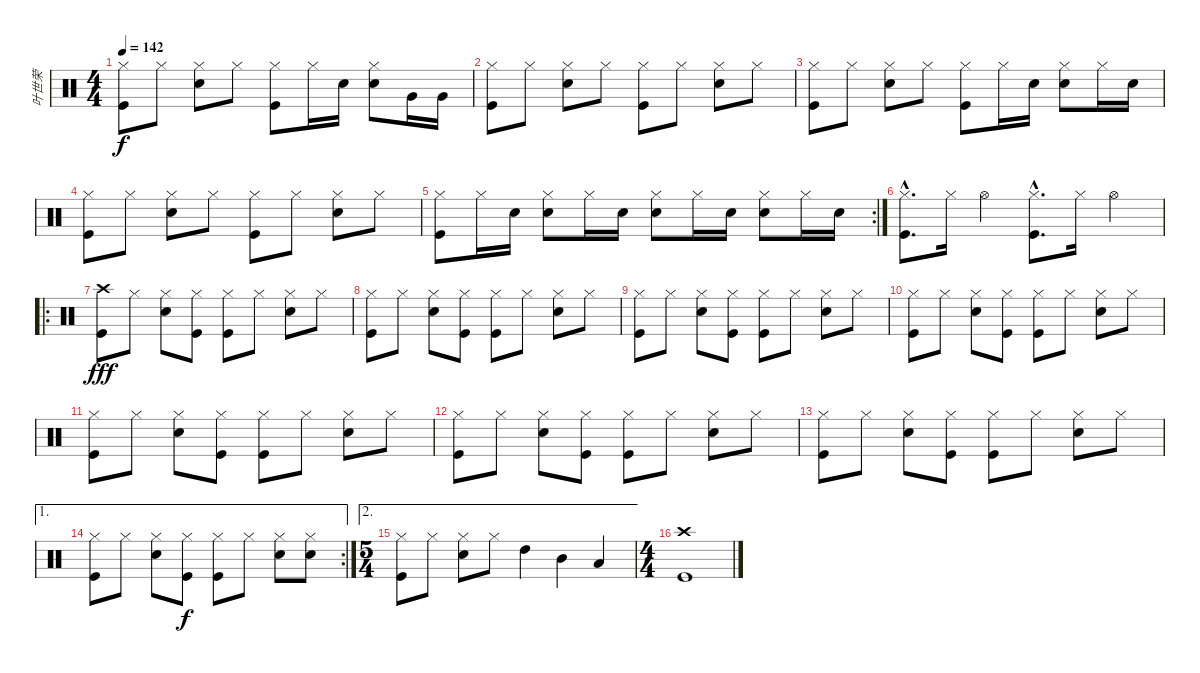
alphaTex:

\track ("叶世荣" "叶世荣") {instrument percussion}
\staff {score}
\articulation defaults
\ts (4 4)
\tempo 142
\clef neutral
\ks c
("Hi-Hat (closed)" "Kick (hit)").8{dy f} "Hi-Hat (closed)".8 ("Hi-Hat (closed)" "Snare (hit) 2").8 "Hi-Hat (closed)".8 ("Hi-Hat (closed)" "Kick (hit)").8 "Hi-Hat (closed)".16 "Snare (hit) 2".16 ("Hi-Hat (closed)" "Snare (hit) 2").8 "Very Low Tom (hit)".16 "Very Low Tom (hit)".16 |
("Hi-Hat (closed)" "Kick (hit)").8 "Hi-Hat (closed)".8 ("Hi-Hat (closed)" "Snare (hit) 2").8 "Hi-Hat (closed)".8 ("Hi-Hat (closed)" "Kick (hit)").8 "Hi-Hat (closed)".8 ("Hi-Hat (closed)" "Snare (hit) 2").8 "Hi-Hat (closed)".8 |
("Hi-Hat (closed)" "Kick (hit)").8 "Hi-Hat (closed)".8 ("Hi-Hat (closed)" "Snare (hit) 2").8 "Hi-Hat (closed)".8 ("Hi-Hat (closed)" "Kick (hit)").8 "Hi-Hat (closed)".16 "Snare (hit) 2".16 ("Hi-Hat (closed)" "Snare (hit) 2").8 "Hi-Hat (closed)".16 "Snare (hit) 2".16 |
("Hi-Hat (closed)" "Kick (hit)").8 "Hi-Hat (closed)".8 ("Hi-Hat (closed)" "Snare (hit) 2").8 "Hi-Hat (closed)".8 ("Hi-Hat (closed)" "Kick (hit)").8 "Hi-Hat (closed)".8 ("Hi-Hat (closed)" "Snare (hit) 2").8 "Hi-Hat (closed)".8 |
\rc 2
("Hi-Hat (closed)" "Kick (hit)").8 "Hi-Hat (closed)".16 "Snare (hit) 2".16 ("Hi-Hat (closed)" "Snare (hit) 2").8 "Hi-Hat (closed)".16 "Snare (hit) 2".16 ("Hi-Hat (closed)" "Snare (hit) 2").8 "Hi-Hat (closed)".16 "Snare (hit) 2".16 ("Hi-Hat (closed)" "Snare (hit) 2").8 "Hi-Hat (closed)".16 "Snare (hit) 2".16 |
("Hi-Hat (closed)"{hac} "Kick (hit)"{hac}).8{d} "Hi-Hat (closed)".16 "Hi-Hat (open)".4 ("Hi-Hat (closed)"{hac} "Kick (hit)"{hac}).8{d} "Hi-Hat (closed)".16 "Hi-Hat (open)".4 |
\ro
("Crash high (hit)" "Kick (hit)").8{dy fff} "Hi-Hat (closed)".8 ("Hi-Hat (closed)" "Snare (hit) 2").8 ("Hi-Hat (closed)" "Kick (hit)").8 ("Hi-Hat (closed)" "Kick (hit)").8 "Hi-Hat (closed)".8 ("Hi-Hat (closed)" "Snare (hit) 2").8 "Hi-Hat (closed)".8 |
("Hi-Hat (closed)" "Kick (hit)").8 "Hi-Hat (closed)".8 ("Hi-Hat (closed)" "Snare (hit) 2").8 ("Hi-Hat (closed)" "Kick (hit)").8 ("Hi-Hat (closed)" "Kick (hit)").8 "Hi-Hat (closed)".8 ("Hi-Hat (closed)" "Snare (hit) 2").8 "Hi-Hat (closed)".8 |
("Hi-Hat (closed)" "Kick (hit)").8 "Hi-Hat (closed)".8 ("Hi-Hat (closed)" "Snare (hit) 2").8 ("Hi-Hat (closed)" "Kick (hit)").8 ("Hi-Hat (closed)" "Kick (hit)").8 "Hi-Hat (closed)".8 ("Hi-Hat (closed)" "Snare (hit) 2").8 "Hi-Hat (closed)".8 |
("Hi-Hat (closed)" "Kick (hit)").8 "Hi-Hat (closed)".8 ("Hi-Hat (closed)" "Snare (hit) 2").8 ("Hi-Hat (closed)" "Kick (hit)").8 ("Hi-Hat (closed)" "Kick (hit)").8 "Hi-Hat (closed)".8 ("Hi-Hat (closed)" "Snare (hit) 2").8 "Hi-Hat (closed)".8 |
("Hi-Hat (closed)" "Kick (hit)").8 "Hi-Hat (closed)".8 ("Hi-Hat (closed)" "Snare (hit) 2").8 ("Hi-Hat (closed)" "Kick (hit)").8 ("Hi-Hat (closed)" "Kick (hit)").8 "Hi-Hat (closed)".8 ("Hi-Hat (closed)" "Snare (hit) 2").8 "Hi-Hat (closed)".8 |
("Hi-Hat (closed)" "Kick (hit)").8 "Hi-Hat (closed)".8 ("Hi-Hat (closed)" "Snare (hit) 2").8 ("Hi-Hat (closed)" "Kick (hit)").8 ("Hi-Hat (closed)" "Kick (hit)").8 "Hi-Hat (closed)".8 ("Hi-Hat (closed)" "Snare (hit) 2").8 "Hi-Hat (closed)".8 |
("Hi-Hat (closed)" "Kick (hit)").8 "Hi-Hat (closed)".8 ("Hi-Hat (closed)" "Snare (hit) 2").8 ("Hi-Hat (closed)" "Kick (hit)").8 ("Hi-Hat (closed)" "Kick (hit)").8 "Hi-Hat (closed)".8 ("Hi-Hat (closed)" "Snare (hit) 2").8 "Hi-Hat (closed)".8 |
\ae 1
\rc 2
("Hi-Hat (closed)" "Kick (hit)").8 "Hi-Hat (closed)".8 ("Hi-Hat (closed)" "Snare (hit) 2").8 ("Hi-Hat (closed)" "Kick (hit)").8{dy f} ("Hi-Hat (closed)" "Kick (hit)").8 "Hi-Hat (closed)".8 ("Hi-Hat (closed)" "Snare (hit) 2").8 ("Hi-Hat (closed)" "Snare (hit) 2").8 |
\ae 2
\ts (5 4)
("Hi-Hat (closed)" "Kick (hit)").8 "Hi-Hat (closed)".8 ("Hi-Hat (closed)" "Snare (hit) 2").8 "Hi-Hat (closed)".8 "High Tom (hit)".4 "Mid Tom (hit)".4 "Low Tom (hit)".4 |
\ts (4 4)
("Crash high (hit)" "Kick (hit)").1
